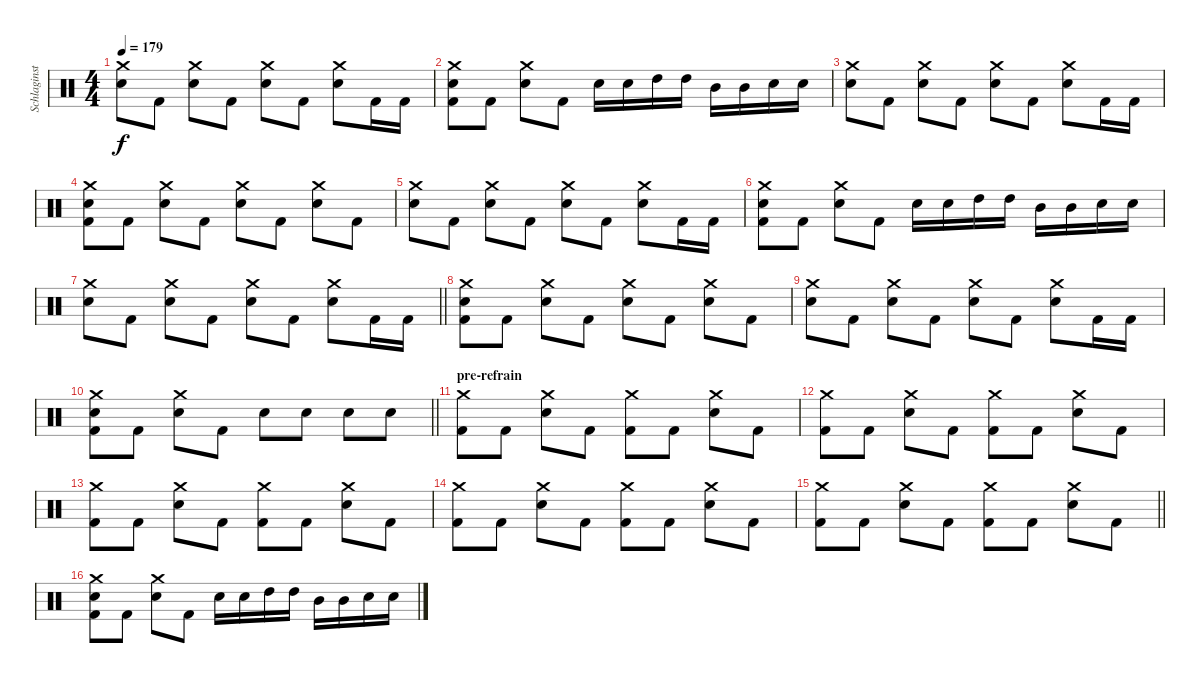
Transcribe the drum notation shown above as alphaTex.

\track ("Schlaginstrumente - Auswahl" "Schlaginst") {instrument percussion}
\staff {score}
\articulation defaults
\ts (4 4)
\tempo 179
\clef neutral
\ks c
("Crash medium (hit)" "Electric Snare (hit)").8{dy f} "Kick (hit) 2".8 ("Crash medium (hit)" "Electric Snare (hit)").8 "Kick (hit) 2".8 ("Crash medium (hit)" "Electric Snare (hit)").8 "Kick (hit) 2".8 ("Crash medium (hit)" "Electric Snare (hit)").8 "Kick (hit) 2".16 "Kick (hit) 2".16 |
("Crash medium (hit)" "Electric Snare (hit)" "Kick (hit) 2").8 "Kick (hit) 2".8 ("Crash medium (hit)" "Electric Snare (hit)").8 "Kick (hit) 2".8 "Electric Snare (hit)".16 "Electric Snare (hit)".16 "High Tom (hit)".16 "High Tom (hit)".16 "Mid Tom (hit)".16 "Mid Tom (hit)".16 "Electric Snare (hit)".16 "Electric Snare (hit)".16 |
("Crash medium (hit)" "Electric Snare (hit)").8 "Kick (hit) 2".8 ("Crash medium (hit)" "Electric Snare (hit)").8 "Kick (hit) 2".8 ("Crash medium (hit)" "Electric Snare (hit)").8 "Kick (hit) 2".8 ("Crash medium (hit)" "Electric Snare (hit)").8 "Kick (hit) 2".16 "Kick (hit) 2".16 |
("Crash medium (hit)" "Electric Snare (hit)" "Kick (hit) 2").8 "Kick (hit) 2".8 ("Crash medium (hit)" "Electric Snare (hit)").8 "Kick (hit) 2".8 ("Crash medium (hit)" "Electric Snare (hit)").8 "Kick (hit) 2".8 ("Crash medium (hit)" "Electric Snare (hit)").8 "Kick (hit) 2".8 |
("Crash medium (hit)" "Electric Snare (hit)").8 "Kick (hit) 2".8 ("Crash medium (hit)" "Electric Snare (hit)").8 "Kick (hit) 2".8 ("Crash medium (hit)" "Electric Snare (hit)").8 "Kick (hit) 2".8 ("Crash medium (hit)" "Electric Snare (hit)").8 "Kick (hit) 2".16 "Kick (hit) 2".16 |
("Crash medium (hit)" "Electric Snare (hit)" "Kick (hit) 2").8 "Kick (hit) 2".8 ("Crash medium (hit)" "Electric Snare (hit)").8 "Kick (hit) 2".8 "Electric Snare (hit)".16 "Electric Snare (hit)".16 "High Tom (hit)".16 "High Tom (hit)".16 "Mid Tom (hit)".16 "Mid Tom (hit)".16 "Electric Snare (hit)".16 "Electric Snare (hit)".16 |
\barLineRight lightlight
("Crash medium (hit)" "Electric Snare (hit)").8 "Kick (hit) 2".8 ("Crash medium (hit)" "Electric Snare (hit)").8 "Kick (hit) 2".8 ("Crash medium (hit)" "Electric Snare (hit)").8 "Kick (hit) 2".8 ("Crash medium (hit)" "Electric Snare (hit)").8 "Kick (hit) 2".16 "Kick (hit) 2".16 |
\section ("" "")
("Crash medium (hit)" "Electric Snare (hit)" "Kick (hit) 2").8 "Kick (hit) 2".8 ("Crash medium (hit)" "Electric Snare (hit)").8 "Kick (hit) 2".8 ("Crash medium (hit)" "Electric Snare (hit)").8 "Kick (hit) 2".8 ("Crash medium (hit)" "Electric Snare (hit)").8 "Kick (hit) 2".8 |
("Crash medium (hit)" "Electric Snare (hit)").8 "Kick (hit) 2".8 ("Crash medium (hit)" "Electric Snare (hit)").8 "Kick (hit) 2".8 ("Crash medium (hit)" "Electric Snare (hit)").8 "Kick (hit) 2".8 ("Crash medium (hit)" "Electric Snare (hit)").8 "Kick (hit) 2".16 "Kick (hit) 2".16 |
\barLineRight lightlight
("Crash medium (hit)" "Electric Snare (hit)" "Kick (hit) 2").8 "Kick (hit) 2".8 ("Crash medium (hit)" "Electric Snare (hit)").8 "Kick (hit) 2".8 "Electric Snare (hit)".8 "Electric Snare (hit)".8 "Electric Snare (hit)".8 "Electric Snare (hit)".8 |
\section ("" "pre-refrain")
("Crash medium (hit)" "Kick (hit) 2").8 "Kick (hit) 2".8 ("Crash medium (hit)" "Electric Snare (hit)").8 "Kick (hit) 2".8 ("Crash medium (hit)" "Kick (hit) 2").8 "Kick (hit) 2".8 ("Crash medium (hit)" "Electric Snare (hit)").8 "Kick (hit) 2".8 |
("Crash medium (hit)" "Kick (hit) 2").8 "Kick (hit) 2".8 ("Crash medium (hit)" "Electric Snare (hit)").8 "Kick (hit) 2".8 ("Crash medium (hit)" "Kick (hit) 2").8 "Kick (hit) 2".8 ("Crash medium (hit)" "Electric Snare (hit)").8 "Kick (hit) 2".8 |
("Crash medium (hit)" "Kick (hit) 2").8 "Kick (hit) 2".8 ("Crash medium (hit)" "Electric Snare (hit)").8 "Kick (hit) 2".8 ("Crash medium (hit)" "Kick (hit) 2").8 "Kick (hit) 2".8 ("Crash medium (hit)" "Electric Snare (hit)").8 "Kick (hit) 2".8 |
("Crash medium (hit)" "Kick (hit) 2").8 "Kick (hit) 2".8 ("Crash medium (hit)" "Electric Snare (hit)").8 "Kick (hit) 2".8 ("Crash medium (hit)" "Kick (hit) 2").8 "Kick (hit) 2".8 ("Crash medium (hit)" "Electric Snare (hit)").8 "Kick (hit) 2".8 |
\barLineRight lightlight
("Crash medium (hit)" "Kick (hit) 2").8 "Kick (hit) 2".8 ("Crash medium (hit)" "Electric Snare (hit)").8 "Kick (hit) 2".8 ("Crash medium (hit)" "Kick (hit) 2").8 "Kick (hit) 2".8 ("Crash medium (hit)" "Electric Snare (hit)").8 "Kick (hit) 2".8 |
("Crash medium (hit)" "Electric Snare (hit)" "Kick (hit) 2").8 "Kick (hit) 2".8 ("Crash medium (hit)" "Electric Snare (hit)").8 "Kick (hit) 2".8 "Electric Snare (hit)".16 "Electric Snare (hit)".16 "High Tom (hit)".16 "High Tom (hit)".16 "Mid Tom (hit)".16 "Mid Tom (hit)".16 "Electric Snare (hit)".16 "Electric Snare (hit)".16
